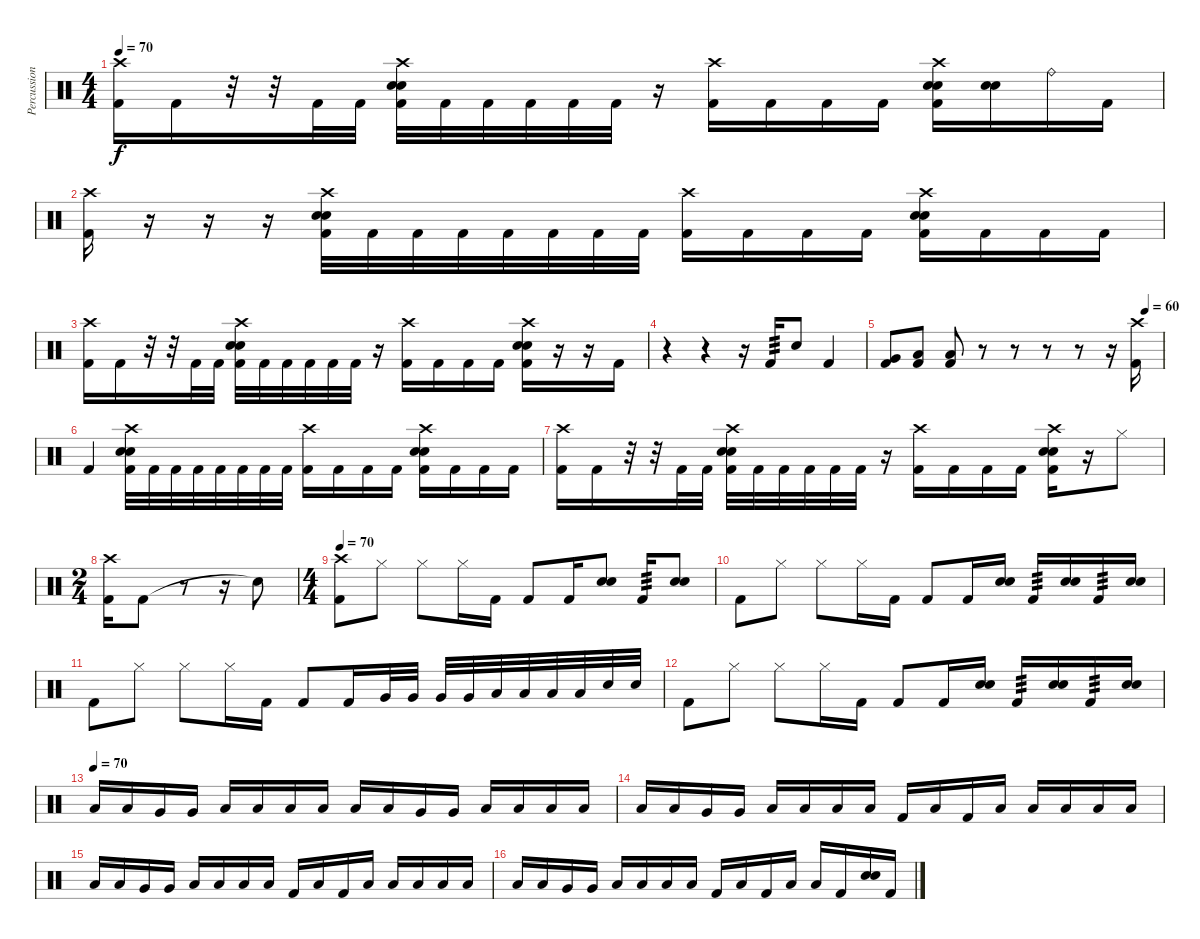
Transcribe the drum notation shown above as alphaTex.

\track ("Percussion" "Percussion") {instrument percussion}
\staff {score}
\articulation defaults
\ts (4 4)
\tempo 70
\clef neutral
\ks c
("Crash high (hit)" "Kick (hit) 2").16{dy f} "Kick (hit) 2".16 r.32 r.32 "Kick (hit) 2".32 "Kick (hit) 2".32 ("Crash high (hit)" "Snare (hit) 2" "Electric Snare (hit)" "Kick (hit) 2").32 "Kick (hit) 2".32 "Kick (hit) 2".32 "Kick (hit) 2".32 "Kick (hit) 2".32 "Kick (hit) 2".32 r.16 ("Crash high (hit)" "Kick (hit) 2").16 "Kick (hit) 2".16 "Kick (hit) 2".16 "Kick (hit) 2".16 ("Crash high (hit)" "Electric Snare (hit)" "Snare (hit) 2" "Kick (hit) 2").16 ("Electric Snare (hit)" "Snare (hit) 2").16 "Ride (bell)".16 "Kick (hit) 2".16 |
("Crash high (hit)" "Kick (hit) 2").16 r.16 r.16 r.16 ("Crash high (hit)" "Snare (hit) 2" "Electric Snare (hit)" "Kick (hit) 2").32 "Kick (hit) 2".32 "Kick (hit) 2".32 "Kick (hit) 2".32 "Kick (hit) 2".32 "Kick (hit) 2".32 "Kick (hit) 2".32 "Kick (hit) 2".32 ("Crash high (hit)" "Kick (hit) 2").16 "Kick (hit) 2".16 "Kick (hit) 2".16 "Kick (hit) 2".16 ("Crash high (hit)" "Snare (hit) 2" "Electric Snare (hit)" "Kick (hit) 2").16 "Kick (hit) 2".16 "Kick (hit) 2".16 "Kick (hit) 2".16 |
("Crash high (hit)" "Kick (hit) 2").16 "Kick (hit) 2".16 r.32 r.32 "Kick (hit) 2".32 "Kick (hit) 2".32 ("Crash high (hit)" "Snare (hit) 2" "Electric Snare (hit)" "Kick (hit) 2").32 "Kick (hit) 2".32 "Kick (hit) 2".32 "Kick (hit) 2".32 "Kick (hit) 2".32 "Kick (hit) 2".32 r.16 ("Crash high (hit)" "Kick (hit) 2").16 "Kick (hit) 2".16 "Kick (hit) 2".16 "Kick (hit) 2".16 ("Crash high (hit)" "Electric Snare (hit)" "Snare (hit) 2" "Kick (hit) 2").16 r.16 r.16 "Kick (hit) 2".16 |
r.4 r.4 r.16 "Kick (hit) 2".16{tp 3} "Electric Snare (hit)".8 "Kick (hit) 2".4 |
\tempo (60 0.9375)
("Very Low Tom (hit)" "Kick (hit) 2").8 ("Low Floor Tom (hit)" "Kick (hit) 2").8 ("Low Floor Tom (hit)" "Kick (hit) 2").8 r.8 r.8 r.8 r.8 r.16 ("Crash high (hit)" "Kick (hit) 2").16 |
"Kick (hit) 2".4 ("Crash high (hit)" "Electric Snare (hit)" "Snare (hit) 2" "Kick (hit) 2").32 "Kick (hit) 2".32 "Kick (hit) 2".32 "Kick (hit) 2".32 "Kick (hit) 2".32 "Kick (hit) 2".32 "Kick (hit) 2".32 "Kick (hit) 2".32 ("Crash high (hit)" "Kick (hit) 2").16 "Kick (hit) 2".16 "Kick (hit) 2".16 "Kick (hit) 2".16 ("Crash high (hit)" "Electric Snare (hit)" "Snare (hit) 2" "Kick (hit) 2").16 "Kick (hit) 2".16 "Kick (hit) 2".16 "Kick (hit) 2".16 |
("Crash high (hit)" "Kick (hit) 2").16 "Kick (hit) 2".16 r.32 r.32 "Kick (hit) 2".32 "Kick (hit) 2".32 ("Crash high (hit)" "Snare (hit) 2" "Electric Snare (hit)" "Kick (hit) 2").32 "Kick (hit) 2".32 "Kick (hit) 2".32 "Kick (hit) 2".32 "Kick (hit) 2".32 "Kick (hit) 2".32 r.16 ("Crash high (hit)" "Kick (hit) 2").16 "Kick (hit) 2".16 "Kick (hit) 2".16 "Kick (hit) 2".16 ("Crash high (hit)" "Snare (hit) 2" "Electric Snare (hit)" "Kick (hit) 2").16 r.16 "Hi-Hat (closed)".8 |
\ts (2 4)
("Crash high (hit)" "Kick (hit) 2").16 "Kick (hit) 2".8 r.8 r.16 "Snare (hit)"{t}.8 |
\ts (4 4)
\tempo 70
("Crash high (hit)" "Kick (hit) 2").8 "Hi-Hat (closed)".8 "Hi-Hat (closed)".8 "Hi-Hat (closed)".16 "Kick (hit) 2".16 "Kick (hit) 2".8 "Kick (hit) 2".16 ("Snare (hit) 2" "Electric Snare (hit)").8 "Kick (hit) 2".16{tp 3} ("Snare (hit) 2" "Electric Snare (hit)").8 |
"Kick (hit) 2".8 "Hi-Hat (closed)".8 "Hi-Hat (closed)".8 "Hi-Hat (closed)".16 "Kick (hit) 2".16 "Kick (hit) 2".8 "Kick (hit) 2".16 ("Snare (hit) 2" "Electric Snare (hit)").16 "Kick (hit) 2".16{tp 3} ("Snare (hit) 2" "Electric Snare (hit)").16 "Kick (hit) 2".16{tp 3} ("Snare (hit) 2" "Electric Snare (hit)").16 |
"Kick (hit) 2".8 "Hi-Hat (closed)".8 "Hi-Hat (closed)".8 "Hi-Hat (closed)".16 "Kick (hit) 2".16 "Kick (hit) 2".8 "Kick (hit) 2".16 "Very Low Tom (hit)".32 "Very Low Tom (hit)".32 "Very Low Tom (hit)".32 "Very Low Tom (hit)".32 "Low Floor Tom (hit)".32 "Low Floor Tom (hit)".32 "Low Floor Tom (hit)".32 "Low Floor Tom (hit)".32 "Electric Snare (hit)".32 "Electric Snare (hit)".32 |
"Kick (hit) 2".8 "Hi-Hat (closed)".8 "Hi-Hat (closed)".8 "Hi-Hat (closed)".16 "Kick (hit) 2".16 "Kick (hit) 2".8 "Kick (hit) 2".16 ("Snare (hit) 2" "Electric Snare (hit)").16 "Kick (hit) 2".16{tp 3} ("Snare (hit) 2" "Electric Snare (hit)").16 "Kick (hit) 2".16{tp 3} ("Snare (hit) 2" "Electric Snare (hit)").16 |
\tempo (70)
"Low Tom (hit)".16 "Low Tom (hit)".16 "Very Low Tom (hit)".16 "Very Low Tom (hit)".16 "Low Floor Tom (hit)".16 "Low Floor Tom (hit)".16 "Low Floor Tom (hit)".16 "Low Floor Tom (hit)".16 "Low Tom (hit)".16 "Low Tom (hit)".16 "Very Low Tom (hit)".16 "Very Low Tom (hit)".16 "Low Floor Tom (hit)".16 "Low Floor Tom (hit)".16 "Low Floor Tom (hit)".16 "Low Floor Tom (hit)".16 |
"Low Tom (hit)".16 "Low Tom (hit)".16 "Very Low Tom (hit)".16 "Very Low Tom (hit)".16 "Low Floor Tom (hit)".16 "Low Floor Tom (hit)".16 "Low Floor Tom (hit)".16 "Low Floor Tom (hit)".16 "Kick (hit) 2".16 "Low Floor Tom (hit)".16 "Kick (hit) 2".16 "Low Floor Tom (hit)".16 "Low Floor Tom (hit)".16 "Low Floor Tom (hit)".16 "Low Floor Tom (hit)".16 "Low Floor Tom (hit)".16 |
"Low Tom (hit)".16 "Low Tom (hit)".16 "Very Low Tom (hit)".16 "Very Low Tom (hit)".16 "Low Floor Tom (hit)".16 "Low Floor Tom (hit)".16 "Low Floor Tom (hit)".16 "Low Floor Tom (hit)".16 "Kick (hit) 2".16 "Low Floor Tom (hit)".16 "Kick (hit) 2".16 "Low Floor Tom (hit)".16 "Low Floor Tom (hit)".16 "Low Floor Tom (hit)".16 "Low Floor Tom (hit)".16 "Low Floor Tom (hit)".16 |
"Low Tom (hit)".16 "Low Tom (hit)".16 "Very Low Tom (hit)".16 "Very Low Tom (hit)".16 "Low Floor Tom (hit)".16 "Low Floor Tom (hit)".16 "Low Floor Tom (hit)".16 "Low Floor Tom (hit)".16 "Kick (hit) 2".16 "Low Floor Tom (hit)".16 "Kick (hit) 2".16 "Low Floor Tom (hit)".16 "Low Floor Tom (hit)".16 "Kick (hit) 2".16 ("Snare (hit) 2" "Electric Snare (hit)").16 "Kick (hit) 2".16
